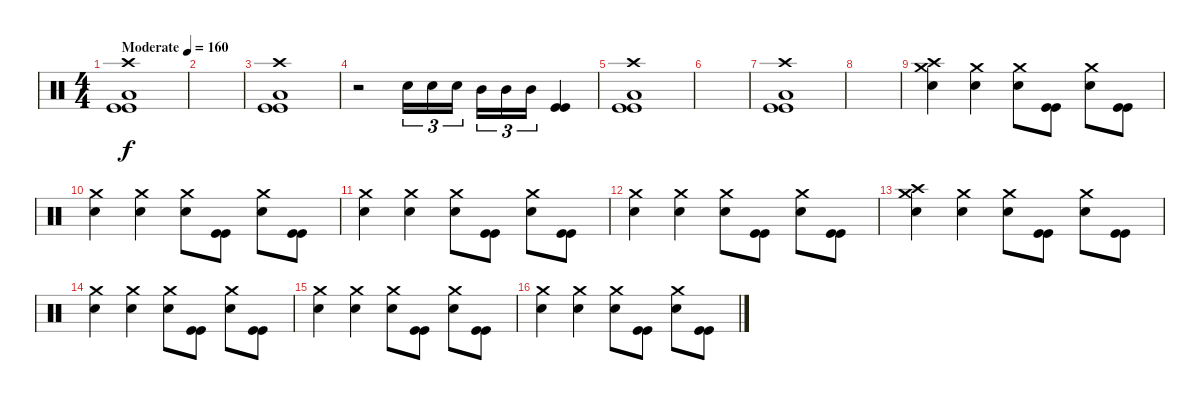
\track ("  " "  ") {instrument percussion}
\staff {score}
\articulation defaults
\ts (4 4)
\tempo (160 "Moderate")
\clef neutral
\ks c
("Crash high (hit)" "Low Floor Tom (hit)" "Kick (hit)" "Kick (hit)").1{dy f} |
|
("Crash high (hit)" "Low Floor Tom (hit)" "Kick (hit)" "Kick (hit)").1 |
r.2 "Electric Snare (hit)".16{tu (3 2)} "Electric Snare (hit)".16{tu (3 2)} "Electric Snare (hit)".16{tu (3 2) beam splitsecondary} "Mid Tom (hit)".16{tu (3 2)} "Mid Tom (hit)".16{tu (3 2)} "Mid Tom (hit)".16{tu (3 2)} ("Kick (hit)" "Kick (hit)").4 |
("Crash high (hit)" "Low Floor Tom (hit)" "Kick (hit)" "Kick (hit)").1 |
|
("Crash high (hit)" "Low Floor Tom (hit)" "Kick (hit)" "Kick (hit)").1 |
|
("Crash high (hit)" "Crash medium (hit)" "Electric Snare (hit)").4 ("Crash medium (hit)" "Electric Snare (hit)").4 ("Crash medium (hit)" "Electric Snare (hit)").8 ("Kick (hit)" "Kick (hit)").8 ("Crash medium (hit)" "Electric Snare (hit)").8 ("Kick (hit)" "Kick (hit)").8 |
("Crash medium (hit)" "Electric Snare (hit)").4 ("Crash medium (hit)" "Electric Snare (hit)").4 ("Crash medium (hit)" "Electric Snare (hit)").8 ("Kick (hit)" "Kick (hit)").8 ("Crash medium (hit)" "Electric Snare (hit)").8 ("Kick (hit)" "Kick (hit)").8 |
("Crash medium (hit)" "Electric Snare (hit)").4 ("Crash medium (hit)" "Electric Snare (hit)").4 ("Crash medium (hit)" "Electric Snare (hit)").8 ("Kick (hit)" "Kick (hit)").8 ("Crash medium (hit)" "Electric Snare (hit)").8 ("Kick (hit)" "Kick (hit)").8 |
("Crash medium (hit)" "Electric Snare (hit)").4 ("Crash medium (hit)" "Electric Snare (hit)").4 ("Crash medium (hit)" "Electric Snare (hit)").8 ("Kick (hit)" "Kick (hit)").8 ("Crash medium (hit)" "Electric Snare (hit)").8 ("Kick (hit)" "Kick (hit)").8 |
("Crash high (hit)" "Crash medium (hit)" "Electric Snare (hit)").4 ("Crash medium (hit)" "Electric Snare (hit)").4 ("Crash medium (hit)" "Electric Snare (hit)").8 ("Kick (hit)" "Kick (hit)").8 ("Crash medium (hit)" "Electric Snare (hit)").8 ("Kick (hit)" "Kick (hit)").8 |
("Crash medium (hit)" "Electric Snare (hit)").4 ("Crash medium (hit)" "Electric Snare (hit)").4 ("Crash medium (hit)" "Electric Snare (hit)").8 ("Kick (hit)" "Kick (hit)").8 ("Crash medium (hit)" "Electric Snare (hit)").8 ("Kick (hit)" "Kick (hit)").8 |
("Crash medium (hit)" "Electric Snare (hit)").4 ("Crash medium (hit)" "Electric Snare (hit)").4 ("Crash medium (hit)" "Electric Snare (hit)").8 ("Kick (hit)" "Kick (hit)").8 ("Crash medium (hit)" "Electric Snare (hit)").8 ("Kick (hit)" "Kick (hit)").8 |
("Crash medium (hit)" "Electric Snare (hit)").4 ("Crash medium (hit)" "Electric Snare (hit)").4 ("Crash medium (hit)" "Electric Snare (hit)").8 ("Kick (hit)" "Kick (hit)").8 ("Crash medium (hit)" "Electric Snare (hit)").8 ("Kick (hit)" "Kick (hit)").8
